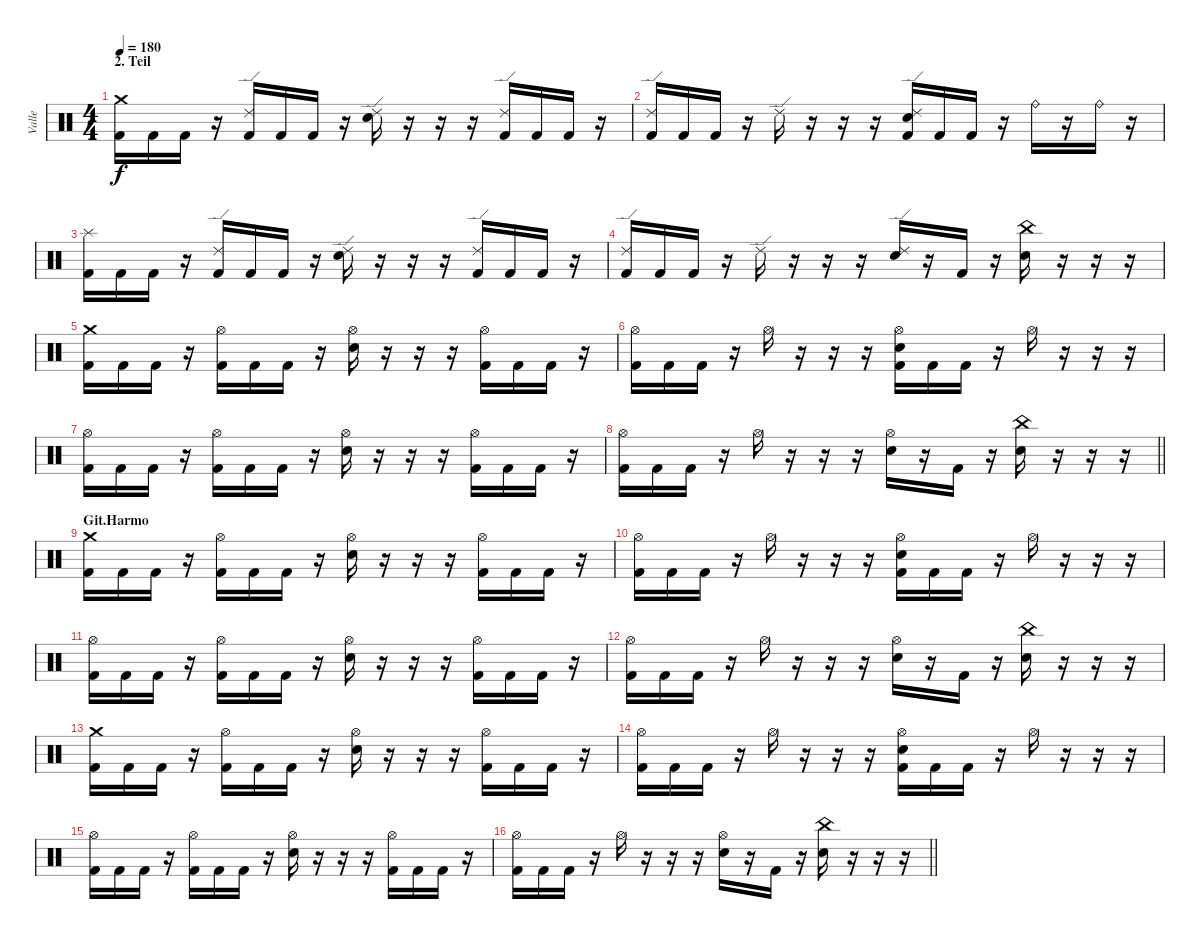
\track ("Valle" "Valle") {instrument percussion}
\staff {score}
\articulation defaults
\ts (4 4)
\section ("" "2. Teil")
\tempo 180
\clef neutral
\ks c
("Crash medium (hit)" "Kick (hit) 2").16{dy f} "Kick (hit) 2".16 "Kick (hit) 2".16 r.16 ("Ride (edge) 2" "Kick (hit) 2").16 "Kick (hit) 2".16 "Kick (hit) 2".16 r.16 ("Ride (edge) 2" "Snare (hit) 2").16 r.16 r.16 r.16 ("Ride (edge) 2" "Kick (hit) 2").16 "Kick (hit) 2".16 "Kick (hit) 2".16 r.16 |
("Ride (edge) 2" "Kick (hit) 2").16 "Kick (hit) 2".16 "Kick (hit) 2".16 r.16 "Ride (edge) 2".16 r.16 r.16 r.16 ("Ride (edge) 2" "Snare (hit) 2" "Kick (hit) 2").16 "Kick (hit) 2".16 "Kick (hit) 2".16 r.16 "Ride (bell)".16 r.16 "Ride (bell)".16 r.16 |
("Splash (hit)" "Kick (hit) 2").16 "Kick (hit) 2".16 "Kick (hit) 2".16 r.16 ("Ride (edge) 2" "Kick (hit) 2").16 "Kick (hit) 2".16 "Kick (hit) 2".16 r.16 ("Ride (edge) 2" "Snare (hit) 2").16 r.16 r.16 r.16 ("Ride (edge) 2" "Kick (hit) 2").16 "Kick (hit) 2".16 "Kick (hit) 2".16 r.16 |
("Ride (edge) 2" "Kick (hit) 2").16 "Kick (hit) 2".16 "Kick (hit) 2".16 r.16 "Ride (edge) 2".16 r.16 r.16 r.16 ("Ride (edge) 2" "Snare (hit) 2").16 r.16 "Kick (hit) 2".16 r.16 ("China (hit)" "Snare (hit) 2").16 r.16 r.16 r.16 |
("Crash medium (hit)" "Kick (hit) 2").16 "Kick (hit) 2".16 "Kick (hit) 2".16 r.16 ("Hi-Hat (open)" "Kick (hit) 2").16 "Kick (hit) 2".16 "Kick (hit) 2".16 r.16 ("Hi-Hat (open)" "Snare (hit) 2").16 r.16 r.16 r.16 ("Hi-Hat (open)" "Kick (hit) 2").16 "Kick (hit) 2".16 "Kick (hit) 2".16 r.16 |
("Hi-Hat (open)" "Kick (hit) 2").16 "Kick (hit) 2".16 "Kick (hit) 2".16 r.16 "Hi-Hat (open)".16 r.16 r.16 r.16 ("Hi-Hat (open)" "Snare (hit) 2" "Kick (hit) 2").16 "Kick (hit) 2".16 "Kick (hit) 2".16 r.16 "Hi-Hat (open)".16 r.16 r.16 r.16 |
("Hi-Hat (open)" "Kick (hit) 2").16 "Kick (hit) 2".16 "Kick (hit) 2".16 r.16 ("Hi-Hat (open)" "Kick (hit) 2").16 "Kick (hit) 2".16 "Kick (hit) 2".16 r.16 ("Hi-Hat (open)" "Snare (hit) 2").16 r.16 r.16 r.16 ("Hi-Hat (open)" "Kick (hit) 2").16 "Kick (hit) 2".16 "Kick (hit) 2".16 r.16 |
\barLineRight lightlight
("Hi-Hat (open)" "Kick (hit) 2").16 "Kick (hit) 2".16 "Kick (hit) 2".16 r.16 "Hi-Hat (open)".16 r.16 r.16 r.16 ("Hi-Hat (open)" "Snare (hit) 2").16 r.16 "Kick (hit) 2".16 r.16 ("China (hit)" "Snare (hit) 2").16 r.16 r.16 r.16 |
\section ("" "Git.Harmo")
("Crash medium (hit)" "Kick (hit) 2").16 "Kick (hit) 2".16 "Kick (hit) 2".16 r.16 ("Hi-Hat (open)" "Kick (hit) 2").16 "Kick (hit) 2".16 "Kick (hit) 2".16 r.16 ("Hi-Hat (open)" "Snare (hit) 2").16 r.16 r.16 r.16 ("Hi-Hat (open)" "Kick (hit) 2").16 "Kick (hit) 2".16 "Kick (hit) 2".16 r.16 |
("Hi-Hat (open)" "Kick (hit) 2").16 "Kick (hit) 2".16 "Kick (hit) 2".16 r.16 "Hi-Hat (open)".16 r.16 r.16 r.16 ("Hi-Hat (open)" "Snare (hit) 2" "Kick (hit) 2").16 "Kick (hit) 2".16 "Kick (hit) 2".16 r.16 "Hi-Hat (open)".16 r.16 r.16 r.16 |
("Hi-Hat (open)" "Kick (hit) 2").16 "Kick (hit) 2".16 "Kick (hit) 2".16 r.16 ("Hi-Hat (open)" "Kick (hit) 2").16 "Kick (hit) 2".16 "Kick (hit) 2".16 r.16 ("Hi-Hat (open)" "Snare (hit) 2").16 r.16 r.16 r.16 ("Hi-Hat (open)" "Kick (hit) 2").16 "Kick (hit) 2".16 "Kick (hit) 2".16 r.16 |
("Hi-Hat (open)" "Kick (hit) 2").16 "Kick (hit) 2".16 "Kick (hit) 2".16 r.16 "Hi-Hat (open)".16 r.16 r.16 r.16 ("Hi-Hat (open)" "Snare (hit) 2").16 r.16 "Kick (hit) 2".16 r.16 ("China (hit)" "Snare (hit) 2").16 r.16 r.16 r.16 |
("Crash medium (hit)" "Kick (hit) 2").16 "Kick (hit) 2".16 "Kick (hit) 2".16 r.16 ("Hi-Hat (open)" "Kick (hit) 2").16 "Kick (hit) 2".16 "Kick (hit) 2".16 r.16 ("Hi-Hat (open)" "Snare (hit) 2").16 r.16 r.16 r.16 ("Hi-Hat (open)" "Kick (hit) 2").16 "Kick (hit) 2".16 "Kick (hit) 2".16 r.16 |
("Hi-Hat (open)" "Kick (hit) 2").16 "Kick (hit) 2".16 "Kick (hit) 2".16 r.16 "Hi-Hat (open)".16 r.16 r.16 r.16 ("Hi-Hat (open)" "Snare (hit) 2" "Kick (hit) 2").16 "Kick (hit) 2".16 "Kick (hit) 2".16 r.16 "Hi-Hat (open)".16 r.16 r.16 r.16 |
("Hi-Hat (open)" "Kick (hit) 2").16 "Kick (hit) 2".16 "Kick (hit) 2".16 r.16 ("Hi-Hat (open)" "Kick (hit) 2").16 "Kick (hit) 2".16 "Kick (hit) 2".16 r.16 ("Hi-Hat (open)" "Snare (hit) 2").16 r.16 r.16 r.16 ("Hi-Hat (open)" "Kick (hit) 2").16 "Kick (hit) 2".16 "Kick (hit) 2".16 r.16 |
\barLineRight lightlight
("Hi-Hat (open)" "Kick (hit) 2").16 "Kick (hit) 2".16 "Kick (hit) 2".16 r.16 "Hi-Hat (open)".16 r.16 r.16 r.16 ("Hi-Hat (open)" "Snare (hit) 2").16 r.16 "Kick (hit) 2".16 r.16 ("China (hit)" "Snare (hit) 2").16 r.16 r.16 r.16
